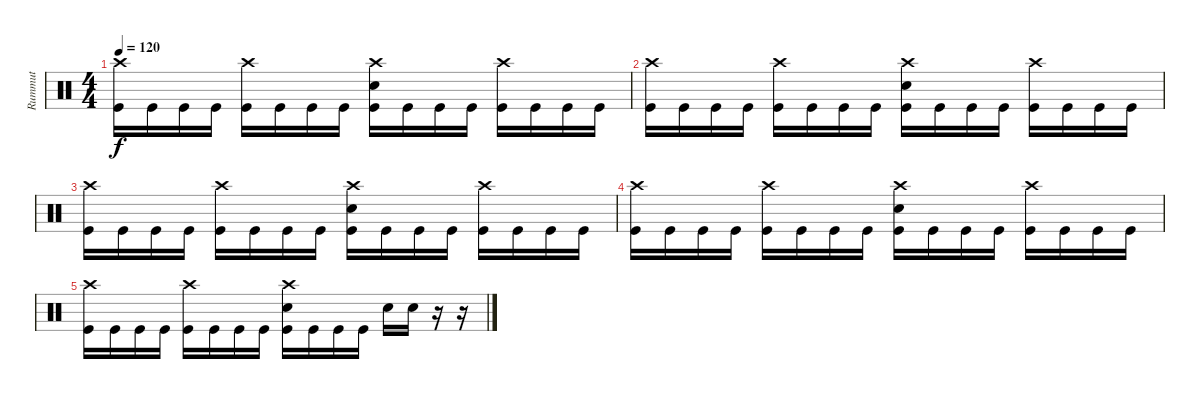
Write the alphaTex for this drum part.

\track ("Rummut" "Rummut") {instrument percussion}
\staff {score}
\articulation defaults
\ts (4 4)
\tempo 120
\clef neutral
\ks c
("Crash high (hit)" "Kick (hit)").16{dy f} "Kick (hit)".16 "Kick (hit)".16 "Kick (hit)".16 ("Crash high (hit)" "Kick (hit)").16 "Kick (hit)".16 "Kick (hit)".16 "Kick (hit)".16 ("Crash high (hit)" "Snare (hit) 2" "Kick (hit)").16 "Kick (hit)".16 "Kick (hit)".16 "Kick (hit)".16 ("Crash high (hit)" "Kick (hit)").16 "Kick (hit)".16 "Kick (hit)".16 "Kick (hit)".16 |
("Crash high (hit)" "Kick (hit)").16 "Kick (hit)".16 "Kick (hit)".16 "Kick (hit)".16 ("Crash high (hit)" "Kick (hit)").16 "Kick (hit)".16 "Kick (hit)".16 "Kick (hit)".16 ("Crash high (hit)" "Snare (hit) 2" "Kick (hit)").16 "Kick (hit)".16 "Kick (hit)".16 "Kick (hit)".16 ("Crash high (hit)" "Kick (hit)").16 "Kick (hit)".16 "Kick (hit)".16 "Kick (hit)".16 |
("Crash high (hit)" "Kick (hit)").16 "Kick (hit)".16 "Kick (hit)".16 "Kick (hit)".16 ("Crash high (hit)" "Kick (hit)").16 "Kick (hit)".16 "Kick (hit)".16 "Kick (hit)".16 ("Crash high (hit)" "Snare (hit) 2" "Kick (hit)").16 "Kick (hit)".16 "Kick (hit)".16 "Kick (hit)".16 ("Crash high (hit)" "Kick (hit)").16 "Kick (hit)".16 "Kick (hit)".16 "Kick (hit)".16 |
("Crash high (hit)" "Kick (hit)").16 "Kick (hit)".16 "Kick (hit)".16 "Kick (hit)".16 ("Crash high (hit)" "Kick (hit)").16 "Kick (hit)".16 "Kick (hit)".16 "Kick (hit)".16 ("Crash high (hit)" "Snare (hit) 2" "Kick (hit)").16 "Kick (hit)".16 "Kick (hit)".16 "Kick (hit)".16 ("Crash high (hit)" "Kick (hit)").16 "Kick (hit)".16 "Kick (hit)".16 "Kick (hit)".16 |
("Crash high (hit)" "Kick (hit)").16 "Kick (hit)".16 "Kick (hit)".16 "Kick (hit)".16 ("Crash high (hit)" "Kick (hit)").16 "Kick (hit)".16 "Kick (hit)".16 "Kick (hit)".16 ("Crash high (hit)" "Snare (hit) 2" "Kick (hit)").16 "Kick (hit)".16 "Kick (hit)".16 "Kick (hit)".16 "Snare (hit) 2".16 "Snare (hit) 2".16 r.16 r.16
